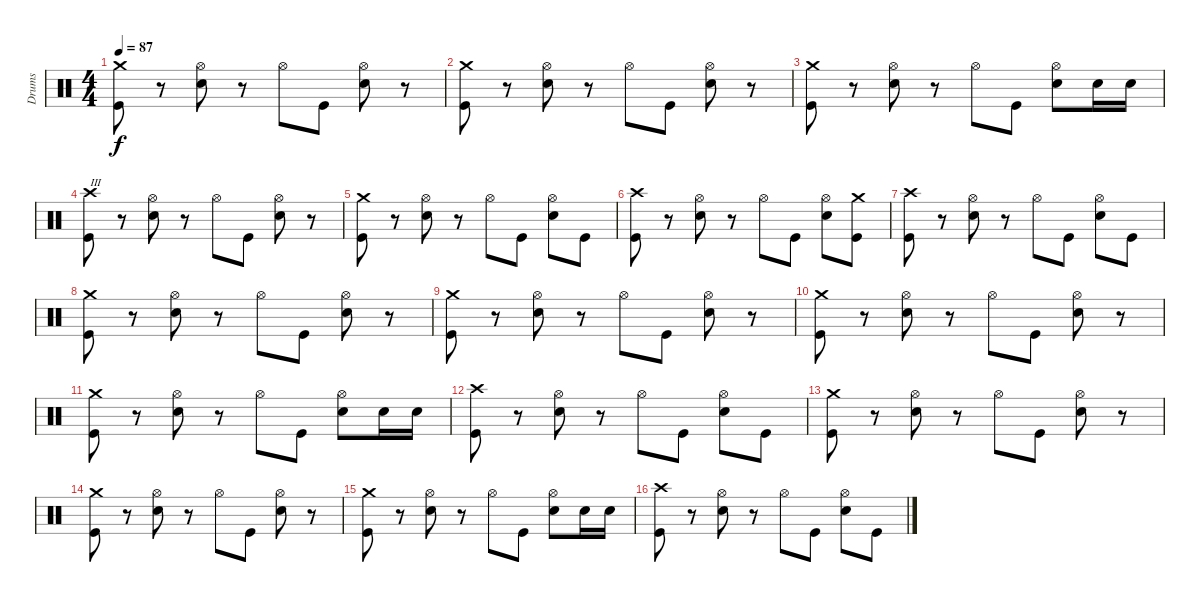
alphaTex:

\track ("Drums" "Drums") {instrument percussion}
\staff {score}
\articulation defaults
\ts (4 4)
\tempo 87
\clef neutral
\ks c
("Crash medium (hit)" "Kick (hit)").8{dy f} r.8 ("Hi-Hat (open)" "Electric Snare (hit)").8 r.8 "Hi-Hat (open)".8 "Kick (hit)".8 ("Hi-Hat (open)" "Electric Snare (hit)").8 r.8 |
("Crash medium (hit)" "Kick (hit)").8 r.8 ("Hi-Hat (open)" "Electric Snare (hit)").8 r.8 "Hi-Hat (open)".8 "Kick (hit)".8 ("Hi-Hat (open)" "Electric Snare (hit)").8 r.8 |
("Crash medium (hit)" "Kick (hit)").8 r.8 ("Hi-Hat (open)" "Electric Snare (hit)").8 r.8 "Hi-Hat (open)".8 "Kick (hit)".8 ("Hi-Hat (open)" "Electric Snare (hit)").8 "Electric Snare (hit)".16 "Electric Snare (hit)".16 |
("Crash high (hit)" "Kick (hit)").8{txt "III"} r.8 ("Hi-Hat (open)" "Electric Snare (hit)").8 r.8 "Hi-Hat (open)".8 "Kick (hit)".8 ("Hi-Hat (open)" "Electric Snare (hit)").8 r.8 |
("Crash medium (hit)" "Kick (hit)").8 r.8 ("Hi-Hat (open)" "Electric Snare (hit)").8 r.8 "Hi-Hat (open)".8 "Kick (hit)".8 ("Hi-Hat (open)" "Electric Snare (hit)").8 "Kick (hit)".8 |
("Crash high (hit)" "Kick (hit)").8 r.8 ("Hi-Hat (open)" "Electric Snare (hit)").8 r.8 "Hi-Hat (open)".8 "Kick (hit)".8 ("Hi-Hat (open)" "Electric Snare (hit)").8 ("Crash medium (hit)" "Kick (hit)").8 |
("Crash high (hit)" "Kick (hit)").8 r.8 ("Hi-Hat (open)" "Electric Snare (hit)").8 r.8 "Hi-Hat (open)".8 "Kick (hit)".8 ("Hi-Hat (open)" "Electric Snare (hit)").8 "Kick (hit)".8 |
("Crash medium (hit)" "Kick (hit)").8 r.8 ("Hi-Hat (open)" "Electric Snare (hit)").8 r.8 "Hi-Hat (open)".8 "Kick (hit)".8 ("Hi-Hat (open)" "Electric Snare (hit)").8 r.8 |
("Crash medium (hit)" "Kick (hit)").8 r.8 ("Hi-Hat (open)" "Electric Snare (hit)").8 r.8 "Hi-Hat (open)".8 "Kick (hit)".8 ("Hi-Hat (open)" "Electric Snare (hit)").8 r.8 |
("Crash medium (hit)" "Kick (hit)").8 r.8 ("Hi-Hat (open)" "Electric Snare (hit)").8 r.8 "Hi-Hat (open)".8 "Kick (hit)".8 ("Hi-Hat (open)" "Electric Snare (hit)").8 r.8 |
("Crash medium (hit)" "Kick (hit)").8 r.8 ("Hi-Hat (open)" "Electric Snare (hit)").8 r.8 "Hi-Hat (open)".8 "Kick (hit)".8 ("Hi-Hat (open)" "Electric Snare (hit)").8 "Electric Snare (hit)".16 "Electric Snare (hit)".16 |
("Crash high (hit)" "Kick (hit)").8 r.8 ("Hi-Hat (open)" "Electric Snare (hit)").8 r.8 "Hi-Hat (open)".8 "Kick (hit)".8 ("Hi-Hat (open)" "Electric Snare (hit)").8 "Kick (hit)".8 |
("Crash medium (hit)" "Kick (hit)").8 r.8 ("Hi-Hat (open)" "Electric Snare (hit)").8 r.8 "Hi-Hat (open)".8 "Kick (hit)".8 ("Hi-Hat (open)" "Electric Snare (hit)").8 r.8 |
("Crash medium (hit)" "Kick (hit)").8 r.8 ("Hi-Hat (open)" "Electric Snare (hit)").8 r.8 "Hi-Hat (open)".8 "Kick (hit)".8 ("Hi-Hat (open)" "Electric Snare (hit)").8 r.8 |
("Crash medium (hit)" "Kick (hit)").8 r.8 ("Hi-Hat (open)" "Electric Snare (hit)").8 r.8 "Hi-Hat (open)".8 "Kick (hit)".8 ("Hi-Hat (open)" "Electric Snare (hit)").8 "Electric Snare (hit)".16 "Electric Snare (hit)".16 |
("Crash high (hit)" "Kick (hit)").8 r.8 ("Hi-Hat (open)" "Electric Snare (hit)").8 r.8 "Hi-Hat (open)".8 "Kick (hit)".8 ("Hi-Hat (open)" "Electric Snare (hit)").8 "Kick (hit)".8
